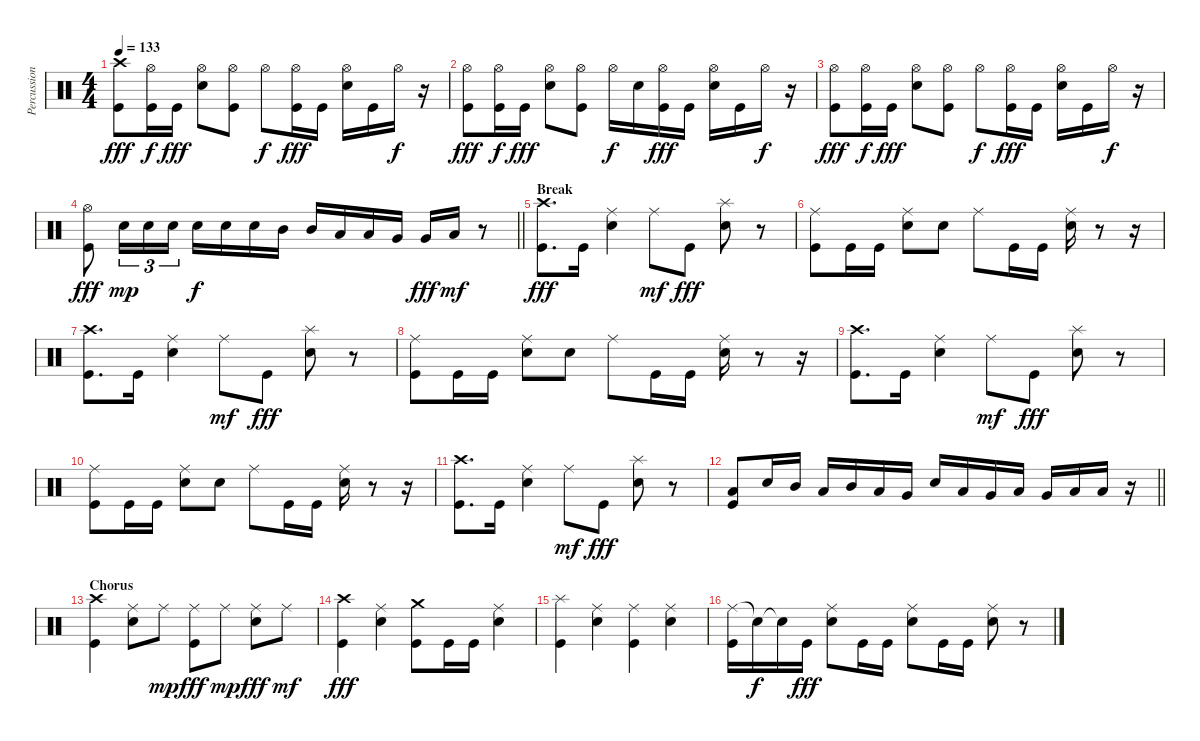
\track ("Percussion/Nicko McBrain" "Percussion") {instrument percussion}
\staff {score}
\articulation defaults
\ts (4 4)
\tempo 133
\clef neutral
\ks c
("Crash high (hit)" "Kick (hit)").8{dy fff} ("Hi-Hat (open)" "Kick (hit)").16{dy f} "Kick (hit)".16{dy fff} ("Hi-Hat (open)" "Electric Snare (hit)").8 ("Hi-Hat (open)" "Kick (hit)").8 "Hi-Hat (open)".8{dy f} ("Hi-Hat (open)" "Kick (hit)").16{dy fff} "Kick (hit)".16 ("Hi-Hat (open)" "Electric Snare (hit)").16 "Kick (hit)".16 "Hi-Hat (open)".16{dy f} r.16 |
("Hi-Hat (open)" "Kick (hit)").8{dy fff} ("Hi-Hat (open)" "Kick (hit)").16{dy f} "Kick (hit)".16{dy fff} ("Hi-Hat (open)" "Electric Snare (hit)").8 ("Hi-Hat (open)" "Kick (hit)").8 "Hi-Hat (open)".16{dy f} "Electric Snare (hit)".16 ("Hi-Hat (open)" "Kick (hit)").16{dy fff} "Kick (hit)".16 ("Hi-Hat (open)" "Electric Snare (hit)").16 "Kick (hit)".16 "Hi-Hat (open)".16{dy f} r.16 |
("Hi-Hat (open)" "Kick (hit)").8{dy fff} ("Hi-Hat (open)" "Kick (hit)").16{dy f} "Kick (hit)".16{dy fff} ("Hi-Hat (open)" "Electric Snare (hit)").8 ("Hi-Hat (open)" "Kick (hit)").8 "Hi-Hat (open)".8{dy f} ("Hi-Hat (open)" "Kick (hit)").16{dy fff} "Kick (hit)".16 ("Hi-Hat (open)" "Electric Snare (hit)").16 "Kick (hit)".16 "Hi-Hat (open)".16{dy f} r.16 |
\barLineRight lightlight
("Hi-Hat (open)" "Kick (hit)").8{dy fff} "Electric Snare (hit)".16{tu (3 2) dy mp} "Electric Snare (hit)".16{tu (3 2)} "Electric Snare (hit)".16{tu (3 2)} "Electric Snare (hit)".16{dy f} "Electric Snare (hit)".16 "Electric Snare (hit)".16 "Mid Tom (hit)".16 "Mid Tom (hit)".16 "Low Tom (hit)".16 "Low Tom (hit)".16 "Very Low Tom (hit)".16 "Very Low Tom (hit)".16{dy fff} "Low Floor Tom (hit)".16{dy mf} r.8 |
\section ("" "Break")
("Crash high (hit)" "Kick (hit)").8{d dy fff} "Kick (hit)".16 ("Ride (middle)" "Electric Snare (hit)").4 "Ride (middle)".8{dy mf} "Kick (hit)".8{dy fff} ("Splash (hit)" "Electric Snare (hit)").8 r.8 |
("Ride (middle)" "Kick (hit)").8 "Kick (hit)".16 "Kick (hit)".16 ("Ride (middle)" "Electric Snare (hit)").8 "Electric Snare (hit)".8 "Ride (middle)".8 "Kick (hit)".16 "Kick (hit)".16 ("Ride (middle)" "Electric Snare (hit)").16 r.8 r.16 |
("Crash high (hit)" "Kick (hit)").8{d} "Kick (hit)".16 ("Ride (middle)" "Electric Snare (hit)").4 "Ride (middle)".8{dy mf} "Kick (hit)".8{dy fff} ("Splash (hit)" "Electric Snare (hit)").8 r.8 |
("Ride (middle)" "Kick (hit)").8 "Kick (hit)".16 "Kick (hit)".16 ("Ride (middle)" "Electric Snare (hit)").8 "Electric Snare (hit)".8 "Ride (middle)".8 "Kick (hit)".16 "Kick (hit)".16 ("Ride (middle)" "Electric Snare (hit)").16 r.8 r.16 |
("Crash high (hit)" "Kick (hit)").8{d} "Kick (hit)".16 ("Ride (middle)" "Electric Snare (hit)").4 "Ride (middle)".8{dy mf} "Kick (hit)".8{dy fff} ("Splash (hit)" "Electric Snare (hit)").8 r.8 |
("Ride (middle)" "Kick (hit)").8 "Kick (hit)".16 "Kick (hit)".16 ("Ride (middle)" "Electric Snare (hit)").8 "Electric Snare (hit)".8 "Ride (middle)".8 "Kick (hit)".16 "Kick (hit)".16 ("Ride (middle)" "Electric Snare (hit)").16 r.8 r.16 |
("Crash high (hit)" "Kick (hit)").8{d} "Kick (hit)".16 ("Ride (middle)" "Electric Snare (hit)").4 "Ride (middle)".8{dy mf} "Kick (hit)".8{dy fff} ("Splash (hit)" "Electric Snare (hit)").8 r.8 |
\barLineRight lightlight
("Low Floor Tom (hit)" "Kick (hit)").8 "Electric Snare (hit)".16 "Mid Tom (hit)".16 "Low Tom (hit)".16 "Mid Tom (hit)".16 "Low Tom (hit)".16 "Very Low Tom (hit)".16 "Snare (hit) 2".16 "Low Tom (hit)".16 "Very Low Tom (hit)".16 "Low Floor Tom (hit)".16 "Very Low Tom (hit)".16 "Low Floor Tom (hit)".16 "Low Floor Tom (hit)".16 r.16 |
\section ("" "Chorus")
("Crash high (hit)" "Kick (hit)").4 ("Ride (middle)" "Electric Snare (hit)").8 "Ride (middle)".8{dy mp} ("Ride (middle)" "Kick (hit)").8{dy fff} "Ride (middle)".8{dy mp} ("Ride (middle)" "Electric Snare (hit)").8{dy fff} "Ride (middle)".8{dy mf} |
("Crash high (hit)" "Kick (hit)").4{dy fff} ("Ride (middle)" "Electric Snare (hit)").4 ("Crash medium (hit)" "Kick (hit)").8 "Kick (hit)".16 "Kick (hit)".16 ("Ride (middle)" "Electric Snare (hit)").4 |
("Splash (hit)" "Kick (hit)").4 ("Ride (middle)" "Electric Snare (hit)").4 ("Ride (middle)" "Kick (hit)").4 ("Ride (middle)" "Electric Snare (hit)").4 |
("Ride (middle)" "Kick (hit)").16 "Snare (hit)"{t}.16{dy f} "Snare (hit)"{t}.16 "Kick (hit)".16{dy fff} ("Ride (middle)" "Electric Snare (hit)").8 "Kick (hit)".16 "Kick (hit)".16 ("Ride (middle)" "Electric Snare (hit)").8 "Kick (hit)".16 "Kick (hit)".16 ("Ride (middle)" "Electric Snare (hit)").8 r.8
